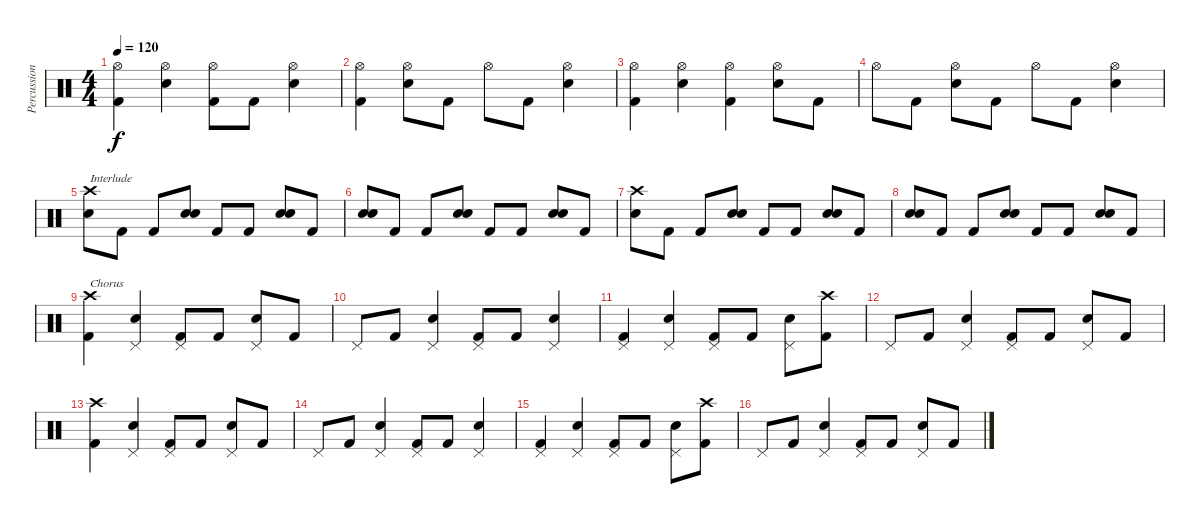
\track ("Percussion" "Percussion") {instrument percussion}
\staff {score}
\articulation defaults
\ts (4 4)
\tempo 120
\clef neutral
\ks c
("Hi-Hat (open)" "Kick (hit) 2").4{dy f} ("Hi-Hat (open)" "Snare (hit) 2").4 ("Hi-Hat (open)" "Kick (hit) 2").8 "Kick (hit) 2".8 ("Hi-Hat (open)" "Snare (hit) 2").4 |
("Hi-Hat (open)" "Kick (hit) 2").4 ("Hi-Hat (open)" "Snare (hit) 2").8 "Kick (hit) 2".8 "Hi-Hat (open)".8 "Kick (hit) 2".8 ("Hi-Hat (open)" "Snare (hit) 2").4 |
("Hi-Hat (open)" "Kick (hit) 2").4 ("Hi-Hat (open)" "Snare (hit) 2").4 ("Hi-Hat (open)" "Kick (hit) 2").4 ("Hi-Hat (open)" "Snare (hit) 2").8 "Kick (hit) 2".8 |
"Hi-Hat (open)".8 "Kick (hit) 2".8 ("Hi-Hat (open)" "Snare (hit) 2").8 "Kick (hit) 2".8 "Hi-Hat (open)".8 "Kick (hit) 2".8 ("Hi-Hat (open)" "Snare (hit) 2").4 |
("Crash high (hit)" "Snare (hit) 2").8{txt "Interlude"} "Kick (hit) 2".8 "Kick (hit) 2".8 ("Snare (hit) 2" "Snare (hit) 2").8 "Kick (hit) 2".8 "Kick (hit) 2".8 ("Snare (hit) 2" "Snare (hit) 2").8 "Kick (hit) 2".8 |
("Snare (hit) 2" "Snare (hit) 2").8 "Kick (hit) 2".8 "Kick (hit) 2".8 ("Snare (hit) 2" "Snare (hit) 2").8 "Kick (hit) 2".8 "Kick (hit) 2".8 ("Snare (hit) 2" "Snare (hit) 2").8 "Kick (hit) 2".8 |
("Crash high (hit)" "Snare (hit) 2").8 "Kick (hit) 2".8 "Kick (hit) 2".8 ("Snare (hit) 2" "Snare (hit) 2").8 "Kick (hit) 2".8 "Kick (hit) 2".8 ("Snare (hit) 2" "Snare (hit) 2").8 "Kick (hit) 2".8 |
("Snare (hit) 2" "Snare (hit) 2").8 "Kick (hit) 2".8 "Kick (hit) 2".8 ("Snare (hit) 2" "Snare (hit) 2").8 "Kick (hit) 2".8 "Kick (hit) 2".8 ("Snare (hit) 2" "Snare (hit) 2").8 "Kick (hit) 2".8 |
("Crash high (hit)" "Kick (hit) 2").4{txt "Chorus"} ("Pedal Hi-Hat (hit)" "Snare (hit) 2").4 ("Pedal Hi-Hat (hit)" "Kick (hit) 2").8 "Kick (hit) 2".8 ("Pedal Hi-Hat (hit)" "Snare (hit) 2").8 "Kick (hit) 2".8 |
"Pedal Hi-Hat (hit)".8 "Kick (hit) 2".8 ("Pedal Hi-Hat (hit)" "Snare (hit) 2").4 ("Pedal Hi-Hat (hit)" "Kick (hit) 2").8 "Kick (hit) 2".8 ("Pedal Hi-Hat (hit)" "Snare (hit) 2").4 |
("Pedal Hi-Hat (hit)" "Kick (hit) 2").4 ("Pedal Hi-Hat (hit)" "Snare (hit) 2").4 ("Pedal Hi-Hat (hit)" "Kick (hit) 2").8 "Kick (hit) 2".8 ("Pedal Hi-Hat (hit)" "Snare (hit) 2").8 ("Crash high (hit)" "Kick (hit) 2").8 |
"Pedal Hi-Hat (hit)".8 "Kick (hit) 2".8 ("Pedal Hi-Hat (hit)" "Snare (hit) 2").4 ("Pedal Hi-Hat (hit)" "Kick (hit) 2").8 "Kick (hit) 2".8 ("Pedal Hi-Hat (hit)" "Snare (hit) 2").8 "Kick (hit) 2".8 |
("Crash high (hit)" "Kick (hit) 2").4 ("Pedal Hi-Hat (hit)" "Snare (hit) 2").4 ("Pedal Hi-Hat (hit)" "Kick (hit) 2").8 "Kick (hit) 2".8 ("Pedal Hi-Hat (hit)" "Snare (hit) 2").8 "Kick (hit) 2".8 |
"Pedal Hi-Hat (hit)".8 "Kick (hit) 2".8 ("Pedal Hi-Hat (hit)" "Snare (hit) 2").4 ("Pedal Hi-Hat (hit)" "Kick (hit) 2").8 "Kick (hit) 2".8 ("Pedal Hi-Hat (hit)" "Snare (hit) 2").4 |
("Pedal Hi-Hat (hit)" "Kick (hit) 2").4 ("Pedal Hi-Hat (hit)" "Snare (hit) 2").4 ("Pedal Hi-Hat (hit)" "Kick (hit) 2").8 "Kick (hit) 2".8 ("Pedal Hi-Hat (hit)" "Snare (hit) 2").8 ("Crash high (hit)" "Kick (hit) 2").8 |
"Pedal Hi-Hat (hit)".8 "Kick (hit) 2".8 ("Pedal Hi-Hat (hit)" "Snare (hit) 2").4 ("Pedal Hi-Hat (hit)" "Kick (hit) 2").8 "Kick (hit) 2".8 ("Pedal Hi-Hat (hit)" "Snare (hit) 2").8 "Kick (hit) 2".8
